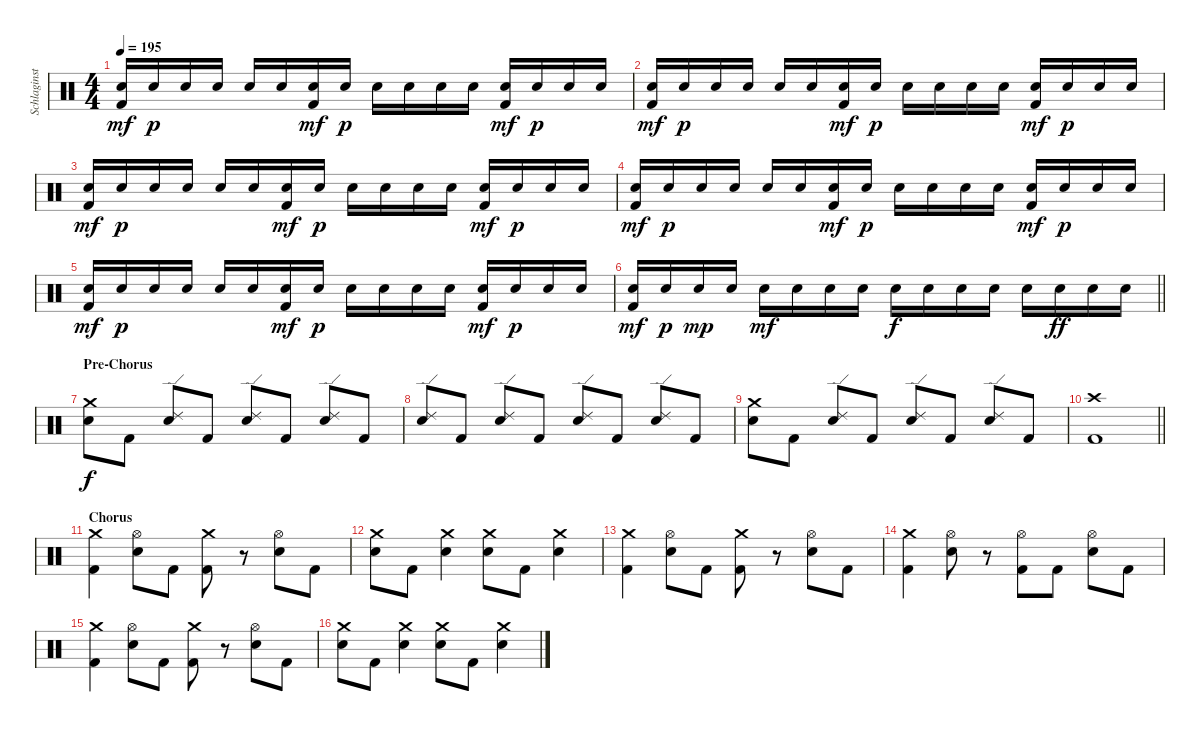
\track ("Schlaginstrumente - Auswahl" "Schlaginst") {instrument percussion}
\staff {score}
\articulation defaults
\ts (4 4)
\tempo 195
\clef neutral
\ks c
("Snare (hit) 2" "Kick (hit) 2").16{dy mf} "Snare (hit) 2".16{dy p} "Snare (hit) 2".16 "Snare (hit) 2".16 "Snare (hit) 2".16 "Snare (hit) 2".16 ("Snare (hit) 2" "Kick (hit) 2").16{dy mf} "Snare (hit) 2".16{dy p} "Snare (hit) 2".16 "Snare (hit) 2".16 "Snare (hit) 2".16 "Snare (hit) 2".16 ("Snare (hit) 2" "Kick (hit) 2").16{dy mf} "Snare (hit) 2".16{dy p} "Snare (hit) 2".16 "Snare (hit) 2".16 |
("Snare (hit) 2" "Kick (hit) 2").16{dy mf} "Snare (hit) 2".16{dy p} "Snare (hit) 2".16 "Snare (hit) 2".16 "Snare (hit) 2".16 "Snare (hit) 2".16 ("Snare (hit) 2" "Kick (hit) 2").16{dy mf} "Snare (hit) 2".16{dy p} "Snare (hit) 2".16 "Snare (hit) 2".16 "Snare (hit) 2".16 "Snare (hit) 2".16 ("Snare (hit) 2" "Kick (hit) 2").16{dy mf} "Snare (hit) 2".16{dy p} "Snare (hit) 2".16 "Snare (hit) 2".16 |
("Snare (hit) 2" "Kick (hit) 2").16{dy mf} "Snare (hit) 2".16{dy p} "Snare (hit) 2".16 "Snare (hit) 2".16 "Snare (hit) 2".16 "Snare (hit) 2".16 ("Snare (hit) 2" "Kick (hit) 2").16{dy mf} "Snare (hit) 2".16{dy p} "Snare (hit) 2".16 "Snare (hit) 2".16 "Snare (hit) 2".16 "Snare (hit) 2".16 ("Snare (hit) 2" "Kick (hit) 2").16{dy mf} "Snare (hit) 2".16{dy p} "Snare (hit) 2".16 "Snare (hit) 2".16 |
("Snare (hit) 2" "Kick (hit) 2").16{dy mf} "Snare (hit) 2".16{dy p} "Snare (hit) 2".16 "Snare (hit) 2".16 "Snare (hit) 2".16 "Snare (hit) 2".16 ("Snare (hit) 2" "Kick (hit) 2").16{dy mf} "Snare (hit) 2".16{dy p} "Snare (hit) 2".16 "Snare (hit) 2".16 "Snare (hit) 2".16 "Snare (hit) 2".16 ("Snare (hit) 2" "Kick (hit) 2").16{dy mf} "Snare (hit) 2".16{dy p} "Snare (hit) 2".16 "Snare (hit) 2".16 |
("Snare (hit) 2" "Kick (hit) 2").16{dy mf} "Snare (hit) 2".16{dy p} "Snare (hit) 2".16 "Snare (hit) 2".16 "Snare (hit) 2".16 "Snare (hit) 2".16 ("Snare (hit) 2" "Kick (hit) 2").16{dy mf} "Snare (hit) 2".16{dy p} "Snare (hit) 2".16 "Snare (hit) 2".16 "Snare (hit) 2".16 "Snare (hit) 2".16 ("Snare (hit) 2" "Kick (hit) 2").16{dy mf} "Snare (hit) 2".16{dy p} "Snare (hit) 2".16 "Snare (hit) 2".16 |
\barLineRight lightlight
("Snare (hit) 2" "Kick (hit) 2").16{dy mf} "Snare (hit) 2".16{dy p} "Snare (hit) 2".16{dy mp} "Snare (hit) 2".16 "Snare (hit) 2".16{dy mf} "Snare (hit) 2".16 "Snare (hit) 2".16 "Snare (hit) 2".16 "Snare (hit) 2".16{dy f} "Snare (hit) 2".16 "Snare (hit) 2".16 "Snare (hit) 2".16 "Snare (hit) 2".16 "Snare (hit) 2".16{dy ff} "Snare (hit) 2".16 "Snare (hit) 2".16 |
\section ("" "Pre-Chorus")
("Crash medium (hit)" "Snare (hit) 2").8{dy f} "Kick (hit) 2".8 ("Ride (edge) 2" "Snare (hit) 2").8 "Kick (hit) 2".8 ("Ride (edge) 2" "Snare (hit) 2").8 "Kick (hit) 2".8 ("Ride (edge) 2" "Snare (hit) 2").8 "Kick (hit) 2".8 |
("Ride (edge) 2" "Snare (hit) 2").8 "Kick (hit) 2".8 ("Ride (edge) 2" "Snare (hit) 2").8 "Kick (hit) 2".8 ("Ride (edge) 2" "Snare (hit) 2").8 "Kick (hit) 2".8 ("Ride (edge) 2" "Snare (hit) 2").8 "Kick (hit) 2".8 |
("Crash medium (hit)" "Snare (hit) 2").8 "Kick (hit) 2".8 ("Ride (edge) 2" "Snare (hit) 2").8 "Kick (hit) 2".8 ("Ride (edge) 2" "Snare (hit) 2").8 "Kick (hit) 2".8 ("Ride (edge) 2" "Snare (hit) 2").8 "Kick (hit) 2".8 |
\barLineRight lightlight
("Crash high (hit)" "Kick (hit) 2").1 |
\section ("" "Chorus")
("Crash medium (hit)" "Kick (hit) 2").4 ("Hi-Hat (open)" "Snare (hit) 2").8 "Kick (hit) 2".8 ("Crash medium (hit)" "Kick (hit) 2").8 r.8 ("Hi-Hat (open)" "Snare (hit) 2").8 "Kick (hit) 2".8 |
("Crash medium (hit)" "Snare (hit) 2").8 "Kick (hit) 2".8 ("Crash medium (hit)" "Snare (hit) 2").4 ("Crash medium (hit)" "Snare (hit) 2").8 "Kick (hit) 2".8 ("Crash medium (hit)" "Snare (hit) 2").4 |
("Crash medium (hit)" "Kick (hit) 2").4 ("Hi-Hat (open)" "Snare (hit) 2").8 "Kick (hit) 2".8 ("Crash medium (hit)" "Kick (hit) 2").8 r.8 ("Hi-Hat (open)" "Snare (hit) 2").8 "Kick (hit) 2".8 |
("Crash medium (hit)" "Kick (hit) 2").4 ("Hi-Hat (open)" "Snare (hit) 2").8 r.8 ("Hi-Hat (open)" "Kick (hit) 2").8 "Kick (hit) 2".8 ("Hi-Hat (open)" "Snare (hit) 2").8 "Kick (hit) 2".8 |
("Crash medium (hit)" "Kick (hit) 2").4 ("Hi-Hat (open)" "Snare (hit) 2").8 "Kick (hit) 2".8 ("Crash medium (hit)" "Kick (hit) 2").8 r.8 ("Hi-Hat (open)" "Snare (hit) 2").8 "Kick (hit) 2".8 |
("Crash medium (hit)" "Snare (hit) 2").8 "Kick (hit) 2".8 ("Crash medium (hit)" "Snare (hit) 2").4 ("Crash medium (hit)" "Snare (hit) 2").8 "Kick (hit) 2".8 ("Crash medium (hit)" "Snare (hit) 2").4
